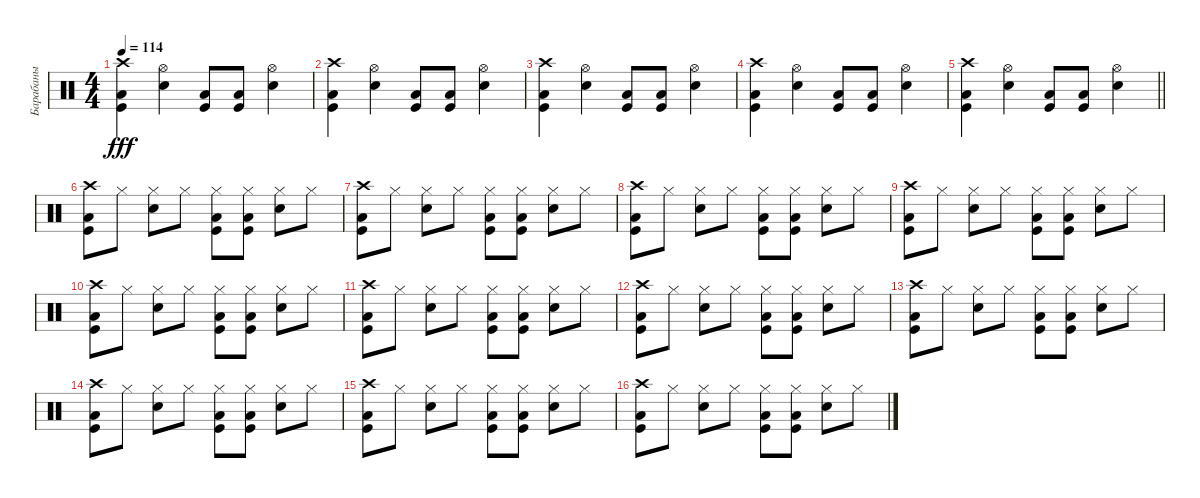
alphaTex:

\track ("Барабаны" "Барабаны") {instrument percussion}
\staff {score}
\articulation defaults
\ts (4 4)
\tempo 114
\clef neutral
\ks c
("Low Floor Tom (hit)" "Kick (hit)" "Crash high (hit)").4{dy fff} ("Electric Snare (hit)" "Hi-Hat (open)").4 ("Low Floor Tom (hit)" "Kick (hit)").8 ("Low Floor Tom (hit)" "Kick (hit)").8 ("Electric Snare (hit)" "Hi-Hat (open)").4 |
("Low Floor Tom (hit)" "Kick (hit)" "Crash high (hit)").4 ("Electric Snare (hit)" "Hi-Hat (open)").4 ("Low Floor Tom (hit)" "Kick (hit)").8 ("Low Floor Tom (hit)" "Kick (hit)").8 ("Electric Snare (hit)" "Hi-Hat (open)").4 |
("Low Floor Tom (hit)" "Kick (hit)" "Crash high (hit)").4 ("Electric Snare (hit)" "Hi-Hat (open)").4 ("Low Floor Tom (hit)" "Kick (hit)").8 ("Low Floor Tom (hit)" "Kick (hit)").8 ("Electric Snare (hit)" "Hi-Hat (open)").4 |
("Low Floor Tom (hit)" "Kick (hit)" "Crash high (hit)").4 ("Electric Snare (hit)" "Hi-Hat (open)").4 ("Low Floor Tom (hit)" "Kick (hit)").8 ("Low Floor Tom (hit)" "Kick (hit)").8 ("Electric Snare (hit)" "Hi-Hat (open)").4 |
\barLineRight lightlight
("Low Floor Tom (hit)" "Kick (hit)" "Crash high (hit)").4 ("Electric Snare (hit)" "Hi-Hat (open)").4 ("Low Floor Tom (hit)" "Kick (hit)").8 ("Low Floor Tom (hit)" "Kick (hit)").8 ("Electric Snare (hit)" "Hi-Hat (open)").4 |
("Low Floor Tom (hit)" "Kick (hit)" "Crash high (hit)").8 "Hi-Hat (closed)".8 ("Electric Snare (hit)" "Hi-Hat (closed)").8 "Hi-Hat (closed)".8 ("Low Floor Tom (hit)" "Kick (hit)" "Hi-Hat (closed)").8 ("Low Floor Tom (hit)" "Kick (hit)" "Hi-Hat (closed)").8 ("Electric Snare (hit)" "Hi-Hat (closed)").8 "Hi-Hat (closed)".8 |
("Low Floor Tom (hit)" "Kick (hit)" "Crash high (hit)").8 "Hi-Hat (closed)".8 ("Electric Snare (hit)" "Hi-Hat (closed)").8 "Hi-Hat (closed)".8 ("Low Floor Tom (hit)" "Kick (hit)" "Hi-Hat (closed)").8 ("Low Floor Tom (hit)" "Kick (hit)" "Hi-Hat (closed)").8 ("Electric Snare (hit)" "Hi-Hat (closed)").8 "Hi-Hat (closed)".8 |
("Low Floor Tom (hit)" "Kick (hit)" "Crash high (hit)").8 "Hi-Hat (closed)".8 ("Electric Snare (hit)" "Hi-Hat (closed)").8 "Hi-Hat (closed)".8 ("Low Floor Tom (hit)" "Kick (hit)" "Hi-Hat (closed)").8 ("Low Floor Tom (hit)" "Kick (hit)" "Hi-Hat (closed)").8 ("Electric Snare (hit)" "Hi-Hat (closed)").8 "Hi-Hat (closed)".8 |
("Low Floor Tom (hit)" "Kick (hit)" "Crash high (hit)").8 "Hi-Hat (closed)".8 ("Electric Snare (hit)" "Hi-Hat (closed)").8 "Hi-Hat (closed)".8 ("Low Floor Tom (hit)" "Kick (hit)" "Hi-Hat (closed)").8 ("Low Floor Tom (hit)" "Kick (hit)" "Hi-Hat (closed)").8 ("Electric Snare (hit)" "Hi-Hat (closed)").8 "Hi-Hat (closed)".8 |
("Low Floor Tom (hit)" "Kick (hit)" "Crash high (hit)").8 "Hi-Hat (closed)".8 ("Electric Snare (hit)" "Hi-Hat (closed)").8 "Hi-Hat (closed)".8 ("Low Floor Tom (hit)" "Kick (hit)" "Hi-Hat (closed)").8 ("Low Floor Tom (hit)" "Kick (hit)" "Hi-Hat (closed)").8 ("Electric Snare (hit)" "Hi-Hat (closed)").8 "Hi-Hat (closed)".8 |
("Low Floor Tom (hit)" "Kick (hit)" "Crash high (hit)").8 "Hi-Hat (closed)".8 ("Electric Snare (hit)" "Hi-Hat (closed)").8 "Hi-Hat (closed)".8 ("Low Floor Tom (hit)" "Kick (hit)" "Hi-Hat (closed)").8 ("Low Floor Tom (hit)" "Kick (hit)" "Hi-Hat (closed)").8 ("Electric Snare (hit)" "Hi-Hat (closed)").8 "Hi-Hat (closed)".8 |
("Low Floor Tom (hit)" "Kick (hit)" "Crash high (hit)").8 "Hi-Hat (closed)".8 ("Electric Snare (hit)" "Hi-Hat (closed)").8 "Hi-Hat (closed)".8 ("Low Floor Tom (hit)" "Kick (hit)" "Hi-Hat (closed)").8 ("Low Floor Tom (hit)" "Kick (hit)" "Hi-Hat (closed)").8 ("Electric Snare (hit)" "Hi-Hat (closed)").8 "Hi-Hat (closed)".8 |
("Low Floor Tom (hit)" "Kick (hit)" "Crash high (hit)").8 "Hi-Hat (closed)".8 ("Electric Snare (hit)" "Hi-Hat (closed)").8 "Hi-Hat (closed)".8 ("Low Floor Tom (hit)" "Kick (hit)" "Hi-Hat (closed)").8 ("Low Floor Tom (hit)" "Kick (hit)" "Hi-Hat (closed)").8 ("Electric Snare (hit)" "Hi-Hat (closed)").8 "Hi-Hat (closed)".8 |
("Low Floor Tom (hit)" "Kick (hit)" "Crash high (hit)").8 "Hi-Hat (closed)".8 ("Electric Snare (hit)" "Hi-Hat (closed)").8 "Hi-Hat (closed)".8 ("Low Floor Tom (hit)" "Kick (hit)" "Hi-Hat (closed)").8 ("Low Floor Tom (hit)" "Kick (hit)" "Hi-Hat (closed)").8 ("Electric Snare (hit)" "Hi-Hat (closed)").8 "Hi-Hat (closed)".8 |
("Low Floor Tom (hit)" "Kick (hit)" "Crash high (hit)").8 "Hi-Hat (closed)".8 ("Electric Snare (hit)" "Hi-Hat (closed)").8 "Hi-Hat (closed)".8 ("Low Floor Tom (hit)" "Kick (hit)" "Hi-Hat (closed)").8 ("Low Floor Tom (hit)" "Kick (hit)" "Hi-Hat (closed)").8 ("Electric Snare (hit)" "Hi-Hat (closed)").8 "Hi-Hat (closed)".8 |
("Low Floor Tom (hit)" "Kick (hit)" "Crash high (hit)").8 "Hi-Hat (closed)".8 ("Electric Snare (hit)" "Hi-Hat (closed)").8 "Hi-Hat (closed)".8 ("Low Floor Tom (hit)" "Kick (hit)" "Hi-Hat (closed)").8 ("Low Floor Tom (hit)" "Kick (hit)" "Hi-Hat (closed)").8 ("Electric Snare (hit)" "Hi-Hat (closed)").8 "Hi-Hat (closed)".8
